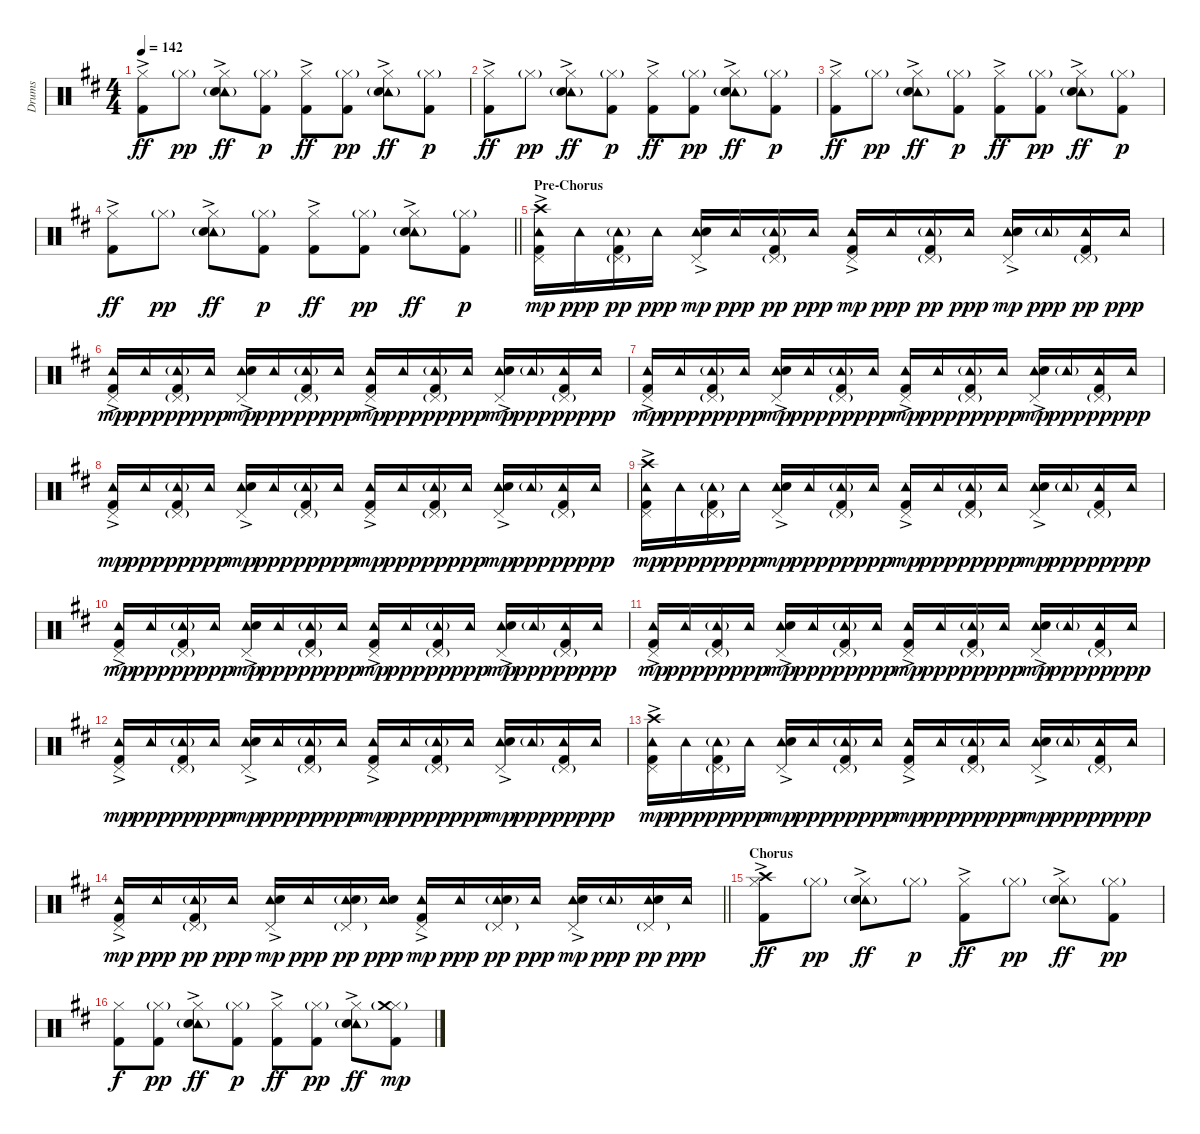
\track ("Drums" "Drums") {instrument percussion}
\staff {score}
\articulation defaults
\ts (4 4)
\tempo 142
\clef neutral
\ks d
("Hi-Hat (closed)" "Kick (hit) 2"{ac}).8{dy ff} "Hi-Hat (closed)"{g}.8{dy pp} ("Hi-Hat (closed)" "Tambourine (hit)"{g} "Snare (hit) 2"{ac}).8{dy ff} ("Hi-Hat (closed)"{g} "Kick (hit) 2").8{dy p} ("Hi-Hat (closed)" "Kick (hit) 2"{ac}).8{dy ff} ("Hi-Hat (closed)"{g} "Kick (hit) 2").8{dy pp} ("Hi-Hat (closed)" "Tambourine (hit)"{g} "Snare (hit) 2"{ac}).8{dy ff} ("Hi-Hat (closed)"{g} "Kick (hit) 2").8{dy p} |
("Hi-Hat (closed)" "Kick (hit) 2"{ac}).8{dy ff} "Hi-Hat (closed)"{g}.8{dy pp} ("Hi-Hat (closed)" "Tambourine (hit)"{g} "Snare (hit) 2"{ac}).8{dy ff} ("Hi-Hat (closed)"{g} "Kick (hit) 2").8{dy p} ("Hi-Hat (closed)" "Kick (hit) 2"{ac}).8{dy ff} ("Hi-Hat (closed)"{g} "Kick (hit) 2").8{dy pp} ("Hi-Hat (closed)" "Tambourine (hit)"{g} "Snare (hit) 2"{ac}).8{dy ff} ("Hi-Hat (closed)"{g} "Kick (hit) 2").8{dy p} |
("Hi-Hat (closed)" "Kick (hit) 2"{ac}).8{dy ff} "Hi-Hat (closed)"{g}.8{dy pp} ("Hi-Hat (closed)" "Tambourine (hit)"{g} "Snare (hit) 2"{ac}).8{dy ff} ("Hi-Hat (closed)"{g} "Kick (hit) 2").8{dy p} ("Hi-Hat (closed)" "Kick (hit) 2"{ac}).8{dy ff} ("Hi-Hat (closed)"{g} "Kick (hit) 2").8{dy pp} ("Hi-Hat (closed)" "Tambourine (hit)"{g} "Snare (hit) 2"{ac}).8{dy ff} ("Hi-Hat (closed)"{g} "Kick (hit) 2").8{dy p} |
\barLineRight lightlight
("Hi-Hat (closed)" "Kick (hit) 2"{ac}).8{dy ff} "Hi-Hat (closed)"{g}.8{dy pp} ("Hi-Hat (closed)" "Tambourine (hit)"{g} "Snare (hit) 2"{ac}).8{dy ff} ("Hi-Hat (closed)"{g} "Kick (hit) 2").8{dy p} ("Hi-Hat (closed)" "Kick (hit) 2"{ac}).8{dy ff} ("Hi-Hat (closed)"{g} "Kick (hit) 2").8{dy pp} ("Hi-Hat (closed)" "Tambourine (hit)"{g} "Snare (hit) 2"{ac}).8{dy ff} ("Hi-Hat (closed)"{g} "Kick (hit) 2").8{dy p} |
\section ("" "Pre-Chorus")
("Pedal Hi-Hat (hit)" "Tambourine (hit)" "Crash high (hit)" "Kick (hit) 2"{ac}).16{dy mp} "Tambourine (hit)".16{dy ppp} ("Pedal Hi-Hat (hit)"{g} "Tambourine (hit)"{g} "Kick (hit) 2").16{dy pp} "Tambourine (hit)".16{dy ppp} ("Pedal Hi-Hat (hit)" "Tambourine (hit)" "Snare (hit) 2"{ac}).16{dy mp} "Tambourine (hit)".16{dy ppp} ("Pedal Hi-Hat (hit)"{g} "Tambourine (hit)"{g} "Kick (hit) 2").16{dy pp} "Tambourine (hit)".16{dy ppp} ("Pedal Hi-Hat (hit)" "Tambourine (hit)" "Kick (hit) 2"{ac}).16{dy mp} "Tambourine (hit)".16{dy ppp} ("Pedal Hi-Hat (hit)"{g} "Tambourine (hit)"{g} "Kick (hit) 2").16{dy pp} "Tambourine (hit)".16{dy ppp} ("Pedal Hi-Hat (hit)" "Tambourine (hit)" "Snare (hit) 2"{ac}).16{dy mp} "Tambourine (hit)"{g}.16{dy ppp} ("Pedal Hi-Hat (hit)"{g} "Tambourine (hit)" "Kick (hit) 2").16{dy pp} "Tambourine (hit)".16{dy ppp} |
("Pedal Hi-Hat (hit)" "Tambourine (hit)" "Kick (hit) 2"{ac}).16{dy mp} "Tambourine (hit)".16{dy ppp} ("Pedal Hi-Hat (hit)"{g} "Tambourine (hit)"{g} "Kick (hit) 2").16{dy pp} "Tambourine (hit)".16{dy ppp} ("Pedal Hi-Hat (hit)" "Tambourine (hit)" "Snare (hit) 2"{ac}).16{dy mp} "Tambourine (hit)".16{dy ppp} ("Pedal Hi-Hat (hit)"{g} "Tambourine (hit)"{g} "Kick (hit) 2").16{dy pp} "Tambourine (hit)".16{dy ppp} ("Pedal Hi-Hat (hit)" "Tambourine (hit)" "Kick (hit) 2"{ac}).16{dy mp} "Tambourine (hit)".16{dy ppp} ("Pedal Hi-Hat (hit)"{g} "Tambourine (hit)"{g} "Kick (hit) 2").16{dy pp} "Tambourine (hit)".16{dy ppp} ("Pedal Hi-Hat (hit)" "Tambourine (hit)" "Snare (hit) 2"{ac}).16{dy mp} "Tambourine (hit)"{g}.16{dy ppp} ("Pedal Hi-Hat (hit)"{g} "Tambourine (hit)" "Kick (hit) 2").16{dy pp} "Tambourine (hit)".16{dy ppp} |
("Pedal Hi-Hat (hit)" "Tambourine (hit)" "Kick (hit) 2"{ac}).16{dy mp} "Tambourine (hit)".16{dy ppp} ("Pedal Hi-Hat (hit)"{g} "Tambourine (hit)"{g} "Kick (hit) 2").16{dy pp} "Tambourine (hit)".16{dy ppp} ("Pedal Hi-Hat (hit)" "Tambourine (hit)" "Snare (hit) 2"{ac}).16{dy mp} "Tambourine (hit)".16{dy ppp} ("Pedal Hi-Hat (hit)"{g} "Tambourine (hit)"{g} "Kick (hit) 2").16{dy pp} "Tambourine (hit)".16{dy ppp} ("Pedal Hi-Hat (hit)" "Tambourine (hit)" "Kick (hit) 2"{ac}).16{dy mp} "Tambourine (hit)".16{dy ppp} ("Pedal Hi-Hat (hit)"{g} "Tambourine (hit)"{g} "Kick (hit) 2").16{dy pp} "Tambourine (hit)".16{dy ppp} ("Pedal Hi-Hat (hit)" "Tambourine (hit)" "Snare (hit) 2"{ac}).16{dy mp} "Tambourine (hit)"{g}.16{dy ppp} ("Pedal Hi-Hat (hit)"{g} "Tambourine (hit)" "Kick (hit) 2").16{dy pp} "Tambourine (hit)".16{dy ppp} |
("Pedal Hi-Hat (hit)" "Tambourine (hit)" "Kick (hit) 2"{ac}).16{dy mp} "Tambourine (hit)".16{dy ppp} ("Pedal Hi-Hat (hit)"{g} "Tambourine (hit)"{g} "Kick (hit) 2").16{dy pp} "Tambourine (hit)".16{dy ppp} ("Pedal Hi-Hat (hit)" "Tambourine (hit)" "Snare (hit) 2"{ac}).16{dy mp} "Tambourine (hit)".16{dy ppp} ("Pedal Hi-Hat (hit)"{g} "Tambourine (hit)"{g} "Kick (hit) 2").16{dy pp} "Tambourine (hit)".16{dy ppp} ("Pedal Hi-Hat (hit)" "Tambourine (hit)" "Kick (hit) 2"{ac}).16{dy mp} "Tambourine (hit)".16{dy ppp} ("Pedal Hi-Hat (hit)"{g} "Tambourine (hit)"{g} "Kick (hit) 2").16{dy pp} "Tambourine (hit)".16{dy ppp} ("Pedal Hi-Hat (hit)" "Tambourine (hit)" "Snare (hit) 2"{ac}).16{dy mp} "Tambourine (hit)"{g}.16{dy ppp} ("Pedal Hi-Hat (hit)"{g} "Tambourine (hit)" "Kick (hit) 2").16{dy pp} "Tambourine (hit)".16{dy ppp} |
("Pedal Hi-Hat (hit)" "Tambourine (hit)" "Crash high (hit)" "Kick (hit) 2"{ac}).16{dy mp} "Tambourine (hit)".16{dy ppp} ("Pedal Hi-Hat (hit)"{g} "Tambourine (hit)"{g} "Kick (hit) 2").16{dy pp} "Tambourine (hit)".16{dy ppp} ("Pedal Hi-Hat (hit)" "Tambourine (hit)" "Snare (hit) 2"{ac}).16{dy mp} "Tambourine (hit)".16{dy ppp} ("Pedal Hi-Hat (hit)"{g} "Tambourine (hit)"{g} "Kick (hit) 2").16{dy pp} "Tambourine (hit)".16{dy ppp} ("Pedal Hi-Hat (hit)" "Tambourine (hit)" "Kick (hit) 2"{ac}).16{dy mp} "Tambourine (hit)".16{dy ppp} ("Pedal Hi-Hat (hit)"{g} "Tambourine (hit)"{g} "Kick (hit) 2").16{dy pp} "Tambourine (hit)".16{dy ppp} ("Pedal Hi-Hat (hit)" "Tambourine (hit)" "Snare (hit) 2"{ac}).16{dy mp} "Tambourine (hit)"{g}.16{dy ppp} ("Pedal Hi-Hat (hit)"{g} "Tambourine (hit)" "Kick (hit) 2").16{dy pp} "Tambourine (hit)".16{dy ppp} |
("Pedal Hi-Hat (hit)" "Tambourine (hit)" "Kick (hit) 2"{ac}).16{dy mp} "Tambourine (hit)".16{dy ppp} ("Pedal Hi-Hat (hit)"{g} "Tambourine (hit)"{g} "Kick (hit) 2").16{dy pp} "Tambourine (hit)".16{dy ppp} ("Pedal Hi-Hat (hit)" "Tambourine (hit)" "Snare (hit) 2"{ac}).16{dy mp} "Tambourine (hit)".16{dy ppp} ("Pedal Hi-Hat (hit)"{g} "Tambourine (hit)"{g} "Kick (hit) 2").16{dy pp} "Tambourine (hit)".16{dy ppp} ("Pedal Hi-Hat (hit)" "Tambourine (hit)" "Kick (hit) 2"{ac}).16{dy mp} "Tambourine (hit)".16{dy ppp} ("Pedal Hi-Hat (hit)"{g} "Tambourine (hit)"{g} "Kick (hit) 2").16{dy pp} "Tambourine (hit)".16{dy ppp} ("Pedal Hi-Hat (hit)" "Tambourine (hit)" "Snare (hit) 2"{ac}).16{dy mp} "Tambourine (hit)"{g}.16{dy ppp} ("Pedal Hi-Hat (hit)"{g} "Tambourine (hit)" "Kick (hit) 2").16{dy pp} "Tambourine (hit)".16{dy ppp} |
("Pedal Hi-Hat (hit)" "Tambourine (hit)" "Kick (hit) 2"{ac}).16{dy mp} "Tambourine (hit)".16{dy ppp} ("Pedal Hi-Hat (hit)"{g} "Tambourine (hit)"{g} "Kick (hit) 2").16{dy pp} "Tambourine (hit)".16{dy ppp} ("Pedal Hi-Hat (hit)" "Tambourine (hit)" "Snare (hit) 2"{ac}).16{dy mp} "Tambourine (hit)".16{dy ppp} ("Pedal Hi-Hat (hit)"{g} "Tambourine (hit)"{g} "Kick (hit) 2").16{dy pp} "Tambourine (hit)".16{dy ppp} ("Pedal Hi-Hat (hit)" "Tambourine (hit)" "Kick (hit) 2"{ac}).16{dy mp} "Tambourine (hit)".16{dy ppp} ("Pedal Hi-Hat (hit)"{g} "Tambourine (hit)"{g} "Kick (hit) 2").16{dy pp} "Tambourine (hit)".16{dy ppp} ("Pedal Hi-Hat (hit)" "Tambourine (hit)" "Snare (hit) 2"{ac}).16{dy mp} "Tambourine (hit)"{g}.16{dy ppp} ("Pedal Hi-Hat (hit)"{g} "Tambourine (hit)" "Kick (hit) 2").16{dy pp} "Tambourine (hit)".16{dy ppp} |
("Pedal Hi-Hat (hit)" "Tambourine (hit)" "Kick (hit) 2"{ac}).16{dy mp} "Tambourine (hit)".16{dy ppp} ("Pedal Hi-Hat (hit)"{g} "Tambourine (hit)"{g} "Kick (hit) 2").16{dy pp} "Tambourine (hit)".16{dy ppp} ("Pedal Hi-Hat (hit)" "Tambourine (hit)" "Snare (hit) 2"{ac}).16{dy mp} "Tambourine (hit)".16{dy ppp} ("Pedal Hi-Hat (hit)"{g} "Tambourine (hit)"{g} "Kick (hit) 2").16{dy pp} "Tambourine (hit)".16{dy ppp} ("Pedal Hi-Hat (hit)" "Tambourine (hit)" "Kick (hit) 2"{ac}).16{dy mp} "Tambourine (hit)".16{dy ppp} ("Pedal Hi-Hat (hit)"{g} "Tambourine (hit)"{g} "Kick (hit) 2").16{dy pp} "Tambourine (hit)".16{dy ppp} ("Pedal Hi-Hat (hit)" "Tambourine (hit)" "Snare (hit) 2"{ac}).16{dy mp} "Tambourine (hit)"{g}.16{dy ppp} ("Pedal Hi-Hat (hit)"{g} "Tambourine (hit)" "Kick (hit) 2").16{dy pp} "Tambourine (hit)".16{dy ppp} |
("Pedal Hi-Hat (hit)" "Tambourine (hit)" "Crash high (hit)" "Kick (hit) 2"{ac}).16{dy mp} "Tambourine (hit)".16{dy ppp} ("Pedal Hi-Hat (hit)"{g} "Tambourine (hit)"{g} "Kick (hit) 2").16{dy pp} "Tambourine (hit)".16{dy ppp} ("Pedal Hi-Hat (hit)" "Tambourine (hit)" "Snare (hit) 2"{ac}).16{dy mp} "Tambourine (hit)".16{dy ppp} ("Pedal Hi-Hat (hit)"{g} "Tambourine (hit)"{g} "Kick (hit) 2").16{dy pp} "Tambourine (hit)".16{dy ppp} ("Pedal Hi-Hat (hit)" "Tambourine (hit)" "Kick (hit) 2"{ac}).16{dy mp} "Tambourine (hit)".16{dy ppp} ("Pedal Hi-Hat (hit)"{g} "Tambourine (hit)"{g} "Kick (hit) 2").16{dy pp} "Tambourine (hit)".16{dy ppp} ("Pedal Hi-Hat (hit)" "Tambourine (hit)" "Snare (hit) 2"{ac}).16{dy mp} "Tambourine (hit)"{g}.16{dy ppp} ("Pedal Hi-Hat (hit)"{g} "Tambourine (hit)" "Kick (hit) 2").16{dy pp} "Tambourine (hit)".16{dy ppp} |
\barLineRight lightlight
("Pedal Hi-Hat (hit)" "Tambourine (hit)" "Kick (hit) 2"{ac}).16{dy mp} "Tambourine (hit)".16{dy ppp} ("Pedal Hi-Hat (hit)"{g} "Tambourine (hit)"{g} "Kick (hit) 2").16{dy pp} "Tambourine (hit)".16{dy ppp} ("Pedal Hi-Hat (hit)" "Tambourine (hit)" "Snare (hit) 2"{ac}).16{dy mp} "Tambourine (hit)".16{dy ppp} ("Pedal Hi-Hat (hit)"{g} "Tambourine (hit)"{g} "Snare (hit) 2").16{dy pp} ("Tambourine (hit)" "Snare (hit) 2").16{dy ppp} ("Pedal Hi-Hat (hit)" "Tambourine (hit)" "Kick (hit) 2"{ac}).16{dy mp} "Tambourine (hit)".16{dy ppp} ("Pedal Hi-Hat (hit)"{g} "Tambourine (hit)"{g} "Snare (hit) 2").16{dy pp} "Tambourine (hit)".16{dy ppp} ("Pedal Hi-Hat (hit)" "Tambourine (hit)" "Snare (hit) 2"{ac}).16{dy mp} "Tambourine (hit)"{g}.16{dy ppp} ("Pedal Hi-Hat (hit)"{g} "Tambourine (hit)" "Snare (hit) 2").16{dy pp} "Tambourine (hit)".16{dy ppp} |
\section ("" "Chorus")
("Hi-Hat (closed)" "Crash high (hit)" "Kick (hit) 2"{ac}).8{dy ff} "Hi-Hat (closed)"{g}.8{dy pp} ("Hi-Hat (closed)" "Tambourine (hit)"{g} "Snare (hit) 2"{ac}).8{dy ff} "Hi-Hat (closed)"{g}.8{dy p} ("Hi-Hat (closed)" "Kick (hit) 2"{ac}).8{dy ff} "Hi-Hat (closed)"{g}.8{dy pp} ("Hi-Hat (closed)" "Tambourine (hit)"{g} "Snare (hit) 2"{ac}).8{dy ff} ("Hi-Hat (closed)"{g} "Kick (hit) 2").8{dy pp} |
("Hi-Hat (closed)" "Kick (hit) 2").8{dy f} ("Hi-Hat (closed)"{g} "Kick (hit) 2").8{dy pp} ("Hi-Hat (closed)" "Tambourine (hit)"{g} "Snare (hit) 2"{ac}).8{dy ff} ("Hi-Hat (closed)"{g} "Kick (hit) 2").8{dy p} ("Hi-Hat (closed)" "Kick (hit) 2"{ac}).8{dy ff} ("Hi-Hat (closed)"{g} "Kick (hit) 2").8{dy pp} ("Hi-Hat (closed)" "Tambourine (hit)"{g} "Snare (hit) 2"{ac}).8{dy ff} ("Hi-Hat (closed)"{g} "Crash medium (hit)"{g} "Kick (hit) 2").8{dy mp}
